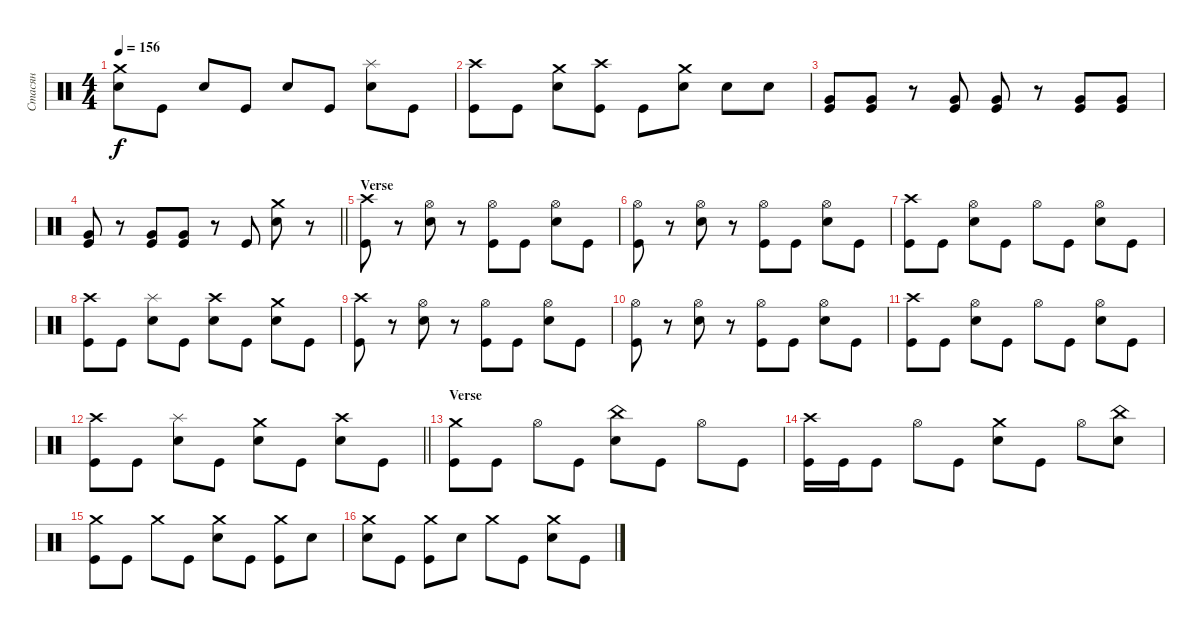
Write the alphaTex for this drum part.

\track ("Стасян" "Стасян") {instrument percussion}
\staff
\articulation defaults
\ts (4 4)
\tempo 156
\clef neutral
\ks c
("Snare (hit) 2" "Crash medium (hit)").8{dy f} "Kick (hit)".8 "Snare (hit) 2".8 "Kick (hit)".8 "Snare (hit) 2".8 "Kick (hit)".8 ("Snare (hit) 2" "Splash (hit)").8 "Kick (hit)".8 |
("Crash high (hit)" "Kick (hit)").8 "Kick (hit)".8 ("Snare (hit) 2" "Crash medium (hit)").8 ("Kick (hit)" "Crash high (hit)").8 "Kick (hit)".8 ("Snare (hit) 2" "Crash medium (hit)").8 "Snare (hit) 2".8 "Snare (hit) 2".8 |
("Kick (hit)" "Very Low Tom (hit)").8 ("Very Low Tom (hit)" "Kick (hit)").8 r.8 ("Kick (hit)" "Very Low Tom (hit)").8 ("Kick (hit)" "Very Low Tom (hit)").8 r.8 ("Kick (hit)" "Very Low Tom (hit)").8 ("Kick (hit)" "Very Low Tom (hit)").8 |
\barLineRight lightlight
("Kick (hit)" "Very Low Tom (hit)").8 r.8 ("Kick (hit)" "Very Low Tom (hit)").8 ("Kick (hit)" "Very Low Tom (hit)").8 r.8 "Kick (hit)".8 ("Snare (hit) 2" "Crash medium (hit)").8 r.8 |
\section ("" "Verse")
("Kick (hit)" "Crash high (hit)").8 r.8 ("Snare (hit) 2" "Hi-Hat (open)").8 r.8 ("Kick (hit)" "Hi-Hat (open)").8 "Kick (hit)".8 ("Snare (hit) 2" "Hi-Hat (open)").8 "Kick (hit)".8 |
("Kick (hit)" "Hi-Hat (open)").8 r.8 ("Snare (hit) 2" "Hi-Hat (open)").8 r.8 ("Hi-Hat (open)" "Kick (hit)").8 "Kick (hit)".8 ("Snare (hit) 2" "Hi-Hat (open)").8 "Kick (hit)".8 |
("Kick (hit)" "Crash high (hit)").8 "Kick (hit)".8 ("Hi-Hat (open)" "Snare (hit) 2").8 "Kick (hit)".8 "Hi-Hat (open)".8 "Kick (hit)".8 ("Hi-Hat (open)" "Snare (hit) 2").8 "Kick (hit)".8 |
("Crash high (hit)" "Kick (hit)").8 "Kick (hit)".8 ("Snare (hit) 2" "Splash (hit)").8 "Kick (hit)".8 ("Snare (hit) 2" "Crash high (hit)").8 "Kick (hit)".8 ("Snare (hit) 2" "Crash medium (hit)").8 "Kick (hit)".8 |
("Kick (hit)" "Crash high (hit)").8 r.8 ("Snare (hit) 2" "Hi-Hat (open)").8 r.8 ("Kick (hit)" "Hi-Hat (open)").8 "Kick (hit)".8 ("Snare (hit) 2" "Hi-Hat (open)").8 "Kick (hit)".8 |
("Kick (hit)" "Hi-Hat (open)").8 r.8 ("Snare (hit) 2" "Hi-Hat (open)").8 r.8 ("Hi-Hat (open)" "Kick (hit)").8 "Kick (hit)".8 ("Snare (hit) 2" "Hi-Hat (open)").8 "Kick (hit)".8 |
("Kick (hit)" "Crash high (hit)").8 "Kick (hit)".8 ("Hi-Hat (open)" "Snare (hit) 2").8 "Kick (hit)".8 "Hi-Hat (open)".8 "Kick (hit)".8 ("Hi-Hat (open)" "Snare (hit) 2").8 "Kick (hit)".8 |
\barLineRight lightlight
("Crash high (hit)" "Kick (hit)").8 "Kick (hit)".8 ("Snare (hit) 2" "Splash (hit)").8 "Kick (hit)".8 ("Snare (hit) 2" "Crash medium (hit)").8 "Kick (hit)".8 ("Snare (hit) 2" "Crash high (hit)").8 "Kick (hit)".8 |
\section ("" "Verse")
("Kick (hit)" "Crash medium (hit)").8 "Kick (hit)".8 "Hi-Hat (open)".8 "Kick (hit)".8 ("China (hit)" "Snare (hit) 2").8 "Kick (hit)".8 "Hi-Hat (open)".8 "Kick (hit)".8 |
("Crash high (hit)" "Kick (hit)").16 "Kick (hit)".16 "Kick (hit)".8 "Hi-Hat (open)".8 "Kick (hit)".8 ("Crash medium (hit)" "Snare (hit) 2").8 "Kick (hit)".8 "Hi-Hat (open)".8 ("Snare (hit) 2" "China (hit)").8 |
("Crash medium (hit)" "Kick (hit)").8 "Kick (hit)".8 "Crash medium (hit)".8 "Kick (hit)".8 ("Crash medium (hit)" "Snare (hit) 2").8 "Kick (hit)".8 ("Crash medium (hit)" "Kick (hit)").8 "Snare (hit) 2".8 |
("Crash medium (hit)" "Snare (hit) 2").8 "Kick (hit)".8 ("Crash medium (hit)" "Kick (hit)").8 "Snare (hit) 2".8 "Crash medium (hit)".8 "Kick (hit)".8 ("Crash medium (hit)" "Snare (hit) 2").8 "Kick (hit)".8
